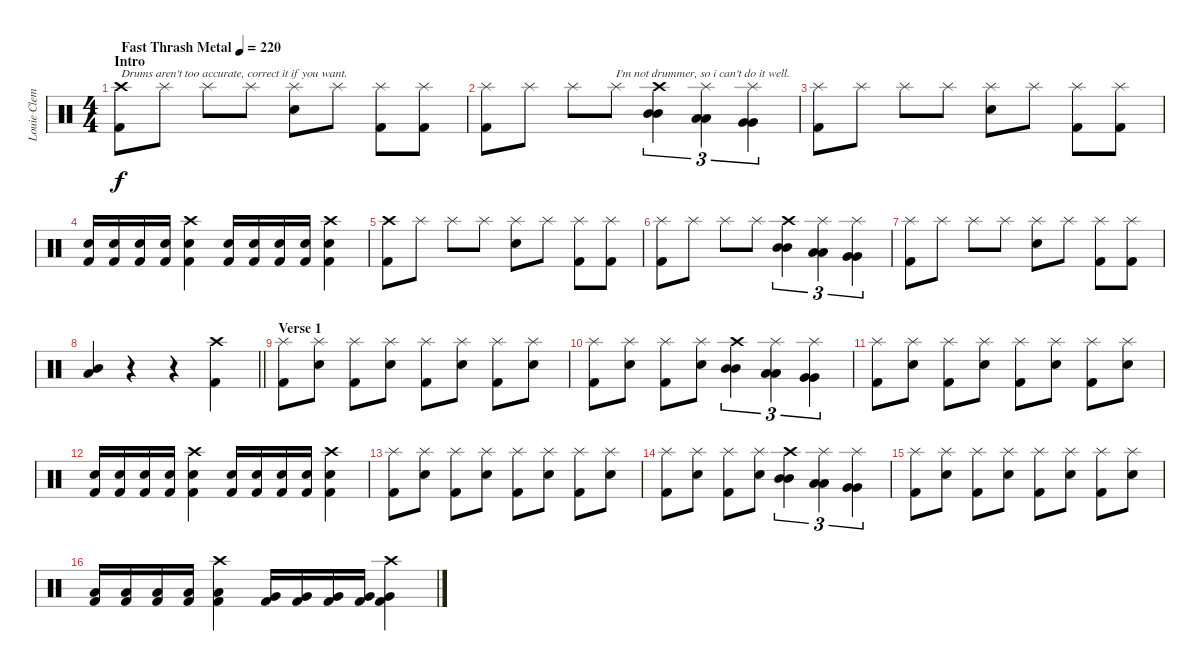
\track ("Louie Clemente (Drums)" "Louie Clem") {instrument percussion}
\staff {score}
\articulation defaults
\ts (4 4)
\section ("" "Intro")
\tempo (220 "Fast Thrash Metal")
\clef neutral
\ks c
("Crash high (hit)" "Kick (hit) 2").8{txt "Drums aren't too accurate, correct it if you want." dy f} "Splash (hit)".8 "Splash (hit)".8 "Splash (hit)".8 ("Splash (hit)" "Electric Snare (hit)").8 "Splash (hit)".8 ("Splash (hit)" "Kick (hit) 2").8 ("Splash (hit)" "Kick (hit) 2").8 |
("Splash (hit)" "Kick (hit) 2").8 "Splash (hit)".8 "Splash (hit)".8 "Splash (hit)".8{txt "I'm not drummer, so i can't do it well."} ("Crash high (hit)" "Mid Tom (hit)" "Mid Tom (hit)").4{tu (3 2)} ("Splash (hit)" "Low Tom (hit)" "Low Tom (hit)").4{tu (3 2)} ("Splash (hit)" "Very Low Tom (hit)" "Very Low Tom (hit)").4{tu (3 2)} |
("Splash (hit)" "Kick (hit) 2").8 "Splash (hit)".8 "Splash (hit)".8 "Splash (hit)".8 ("Splash (hit)" "Electric Snare (hit)").8 "Splash (hit)".8 ("Splash (hit)" "Kick (hit) 2").8 ("Splash (hit)" "Kick (hit) 2").8 |
("Electric Snare (hit)" "Kick (hit) 2").16 ("Electric Snare (hit)" "Kick (hit) 2").16 ("Electric Snare (hit)" "Kick (hit) 2").16 ("Electric Snare (hit)" "Kick (hit) 2").16 ("Crash high (hit)" "Electric Snare (hit)" "Kick (hit) 2").4 ("Electric Snare (hit)" "Kick (hit) 2").16 ("Electric Snare (hit)" "Kick (hit) 2").16 ("Electric Snare (hit)" "Kick (hit) 2").16 ("Electric Snare (hit)" "Kick (hit) 2").16 ("Crash high (hit)" "Electric Snare (hit)" "Kick (hit) 2").4 |
("Crash high (hit)" "Kick (hit) 2").8 "Splash (hit)".8 "Splash (hit)".8 "Splash (hit)".8 ("Splash (hit)" "Electric Snare (hit)").8 "Splash (hit)".8 ("Splash (hit)" "Kick (hit) 2").8 ("Splash (hit)" "Kick (hit) 2").8 |
("Splash (hit)" "Kick (hit) 2").8 "Splash (hit)".8 "Splash (hit)".8 "Splash (hit)".8 ("Crash high (hit)" "Mid Tom (hit)" "Mid Tom (hit)").4{tu (3 2)} ("Splash (hit)" "Low Tom (hit)" "Low Tom (hit)").4{tu (3 2)} ("Splash (hit)" "Very Low Tom (hit)" "Very Low Tom (hit)").4{tu (3 2)} |
("Splash (hit)" "Kick (hit) 2").8 "Splash (hit)".8 "Splash (hit)".8 "Splash (hit)".8 ("Splash (hit)" "Electric Snare (hit)").8 "Splash (hit)".8 ("Splash (hit)" "Kick (hit) 2").8 ("Splash (hit)" "Kick (hit) 2").8 |
\barLineRight lightlight
("Mid Tom (hit)" "Low Tom (hit)").4 r.4 r.4 ("Crash high (hit)" "Kick (hit) 2").4 |
\section ("" "Verse 1")
("Splash (hit)" "Kick (hit) 2").8 ("Splash (hit)" "Electric Snare (hit)").8 ("Splash (hit)" "Kick (hit) 2").8 ("Splash (hit)" "Electric Snare (hit)").8 ("Splash (hit)" "Kick (hit) 2").8 ("Splash (hit)" "Electric Snare (hit)").8 ("Splash (hit)" "Kick (hit) 2").8 ("Splash (hit)" "Electric Snare (hit)").8 |
("Splash (hit)" "Kick (hit) 2").8 ("Splash (hit)" "Electric Snare (hit)").8 ("Splash (hit)" "Kick (hit) 2").8 ("Splash (hit)" "Electric Snare (hit)").8 ("Crash high (hit)" "Mid Tom (hit)" "Mid Tom (hit)").4{tu (3 2)} ("Splash (hit)" "Low Tom (hit)" "Low Tom (hit)").4{tu (3 2)} ("Splash (hit)" "Very Low Tom (hit)" "Very Low Tom (hit)").4{tu (3 2)} |
("Splash (hit)" "Kick (hit) 2").8 ("Splash (hit)" "Electric Snare (hit)").8 ("Splash (hit)" "Kick (hit) 2").8 ("Splash (hit)" "Electric Snare (hit)").8 ("Splash (hit)" "Kick (hit) 2").8 ("Splash (hit)" "Electric Snare (hit)").8 ("Splash (hit)" "Kick (hit) 2").8 ("Splash (hit)" "Electric Snare (hit)").8 |
("Electric Snare (hit)" "Kick (hit) 2").16 ("Electric Snare (hit)" "Kick (hit) 2").16 ("Electric Snare (hit)" "Kick (hit) 2").16 ("Electric Snare (hit)" "Kick (hit) 2").16 ("Crash high (hit)" "Electric Snare (hit)" "Kick (hit) 2").4 ("Electric Snare (hit)" "Kick (hit) 2").16 ("Electric Snare (hit)" "Kick (hit) 2").16 ("Electric Snare (hit)" "Kick (hit) 2").16 ("Electric Snare (hit)" "Kick (hit) 2").16 ("Crash high (hit)" "Electric Snare (hit)" "Kick (hit) 2").4 |
("Splash (hit)" "Kick (hit) 2").8 ("Splash (hit)" "Electric Snare (hit)").8 ("Splash (hit)" "Kick (hit) 2").8 ("Splash (hit)" "Electric Snare (hit)").8 ("Splash (hit)" "Kick (hit) 2").8 ("Splash (hit)" "Electric Snare (hit)").8 ("Splash (hit)" "Kick (hit) 2").8 ("Splash (hit)" "Electric Snare (hit)").8 |
("Splash (hit)" "Kick (hit) 2").8 ("Splash (hit)" "Electric Snare (hit)").8 ("Splash (hit)" "Kick (hit) 2").8 ("Splash (hit)" "Electric Snare (hit)").8 ("Crash high (hit)" "Mid Tom (hit)" "Mid Tom (hit)").4{tu (3 2)} ("Splash (hit)" "Low Tom (hit)" "Low Tom (hit)").4{tu (3 2)} ("Splash (hit)" "Very Low Tom (hit)" "Very Low Tom (hit)").4{tu (3 2)} |
("Splash (hit)" "Kick (hit) 2").8 ("Splash (hit)" "Electric Snare (hit)").8 ("Splash (hit)" "Kick (hit) 2").8 ("Splash (hit)" "Electric Snare (hit)").8 ("Splash (hit)" "Kick (hit) 2").8 ("Splash (hit)" "Electric Snare (hit)").8 ("Splash (hit)" "Kick (hit) 2").8 ("Splash (hit)" "Electric Snare (hit)").8 |
("Low Tom (hit)" "Kick (hit) 2").16 ("Low Tom (hit)" "Kick (hit) 2").16 ("Low Tom (hit)" "Kick (hit) 2").16 ("Low Tom (hit)" "Kick (hit) 2").16 ("Crash high (hit)" "Low Tom (hit)" "Kick (hit) 2").4 ("Very Low Tom (hit)" "Kick (hit) 2").16 ("Very Low Tom (hit)" "Kick (hit) 2").16 ("Very Low Tom (hit)" "Kick (hit) 2").16 ("Very Low Tom (hit)" "Kick (hit) 2").16 ("Crash high (hit)" "Very Low Tom (hit)" "Kick (hit) 2").4
